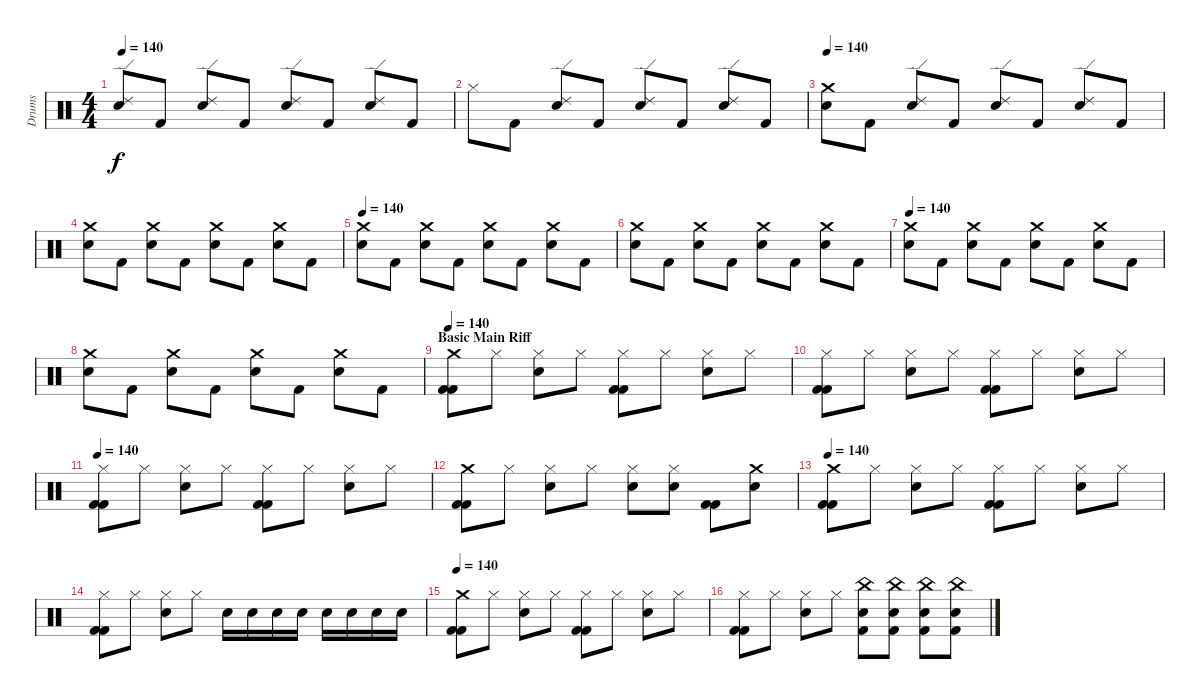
\track ("Drums" "Drums") {instrument percussion}
\staff {score}
\articulation defaults
\ts (4 4)
\tempo 140
\clef neutral
\ks c
("Ride (edge) 2" "Electric Snare (hit)").8{dy f} "Kick (hit) 2".8 ("Electric Snare (hit)" "Ride (edge) 2").8 "Kick (hit) 2".8 ("Electric Snare (hit)" "Ride (edge) 2").8 "Kick (hit) 2".8 ("Ride (edge) 2" "Electric Snare (hit)").8 "Kick (hit) 2".8 |
"Hi-Hat (closed)".8 "Kick (hit) 2".8 ("Electric Snare (hit)" "Ride (edge) 2").8 "Kick (hit) 2".8 ("Electric Snare (hit)" "Ride (edge) 2").8 "Kick (hit) 2".8 ("Ride (edge) 2" "Electric Snare (hit)").8 "Kick (hit) 2".8 |
\tempo 140
("Crash medium (hit)" "Electric Snare (hit)").8 "Kick (hit) 2".8 ("Electric Snare (hit)" "Ride (edge) 2").8 "Kick (hit) 2".8 ("Electric Snare (hit)" "Ride (edge) 2").8 "Kick (hit) 2".8 ("Ride (edge) 2" "Electric Snare (hit)").8 "Kick (hit) 2".8 |
("Crash medium (hit)" "Electric Snare (hit)").8 "Kick (hit) 2".8 ("Electric Snare (hit)" "Crash medium (hit)").8 "Kick (hit) 2".8 ("Electric Snare (hit)" "Crash medium (hit)").8 "Kick (hit) 2".8 ("Crash medium (hit)" "Electric Snare (hit)").8 "Kick (hit) 2".8 |
\tempo 140
("Crash medium (hit)" "Electric Snare (hit)").8 "Kick (hit) 2".8 ("Electric Snare (hit)" "Crash medium (hit)").8 "Kick (hit) 2".8 ("Electric Snare (hit)" "Crash medium (hit)").8 "Kick (hit) 2".8 ("Crash medium (hit)" "Electric Snare (hit)").8 "Kick (hit) 2".8 |
("Crash medium (hit)" "Electric Snare (hit)").8 "Kick (hit) 2".8 ("Electric Snare (hit)" "Crash medium (hit)").8 "Kick (hit) 2".8 ("Electric Snare (hit)" "Crash medium (hit)").8 "Kick (hit) 2".8 ("Crash medium (hit)" "Electric Snare (hit)").8 "Kick (hit) 2".8 |
\tempo 140
("Crash medium (hit)" "Electric Snare (hit)").8 "Kick (hit) 2".8 ("Electric Snare (hit)" "Crash medium (hit)").8 "Kick (hit) 2".8 ("Electric Snare (hit)" "Crash medium (hit)").8 "Kick (hit) 2".8 ("Crash medium (hit)" "Electric Snare (hit)").8 "Kick (hit) 2".8 |
("Crash medium (hit)" "Electric Snare (hit)").8 "Kick (hit) 2".8 ("Electric Snare (hit)" "Crash medium (hit)").8 "Kick (hit) 2".8 ("Electric Snare (hit)" "Crash medium (hit)").8 "Kick (hit) 2".8 ("Crash medium (hit)" "Electric Snare (hit)").8 "Kick (hit) 2".8 |
\section ("" "Basic Main Riff ")
\tempo 140
("Crash medium (hit)" "Kick (hit) 2" "Kick (hit) 2").8 "Hi-Hat (closed)".8 ("Electric Snare (hit)" "Hi-Hat (closed)").8 "Hi-Hat (closed)".8 ("Hi-Hat (closed)" "Kick (hit) 2" "Kick (hit) 2").8 "Hi-Hat (closed)".8 ("Electric Snare (hit)" "Hi-Hat (closed)").8 "Hi-Hat (closed)".8 |
("Hi-Hat (closed)" "Kick (hit) 2" "Kick (hit) 2").8 "Hi-Hat (closed)".8 ("Electric Snare (hit)" "Hi-Hat (closed)").8 "Hi-Hat (closed)".8 ("Hi-Hat (closed)" "Kick (hit) 2" "Kick (hit) 2").8 "Hi-Hat (closed)".8 ("Electric Snare (hit)" "Hi-Hat (closed)").8 "Hi-Hat (closed)".8 |
\tempo 140
("Hi-Hat (closed)" "Kick (hit) 2" "Kick (hit) 2").8 "Hi-Hat (closed)".8 ("Electric Snare (hit)" "Hi-Hat (closed)").8 "Hi-Hat (closed)".8 ("Hi-Hat (closed)" "Kick (hit) 2" "Kick (hit) 2").8 "Hi-Hat (closed)".8 ("Electric Snare (hit)" "Hi-Hat (closed)").8 "Hi-Hat (closed)".8 |
("Crash medium (hit)" "Kick (hit) 2" "Kick (hit) 2").8 "Hi-Hat (closed)".8 ("Electric Snare (hit)" "Hi-Hat (closed)").8 "Hi-Hat (closed)".8 ("Hi-Hat (closed)" "Electric Snare (hit)").8 ("Hi-Hat (closed)" "Electric Snare (hit)").8 ("Kick (hit) 2" "Kick (hit) 2").8 ("Electric Snare (hit)" "Crash medium (hit)").8 |
\tempo 140
("Crash medium (hit)" "Kick (hit) 2" "Kick (hit) 2").8 "Hi-Hat (closed)".8 ("Electric Snare (hit)" "Hi-Hat (closed)").8 "Hi-Hat (closed)".8 ("Hi-Hat (closed)" "Kick (hit) 2" "Kick (hit) 2").8 "Hi-Hat (closed)".8 ("Electric Snare (hit)" "Hi-Hat (closed)").8 "Hi-Hat (closed)".8 |
("Hi-Hat (closed)" "Kick (hit) 2" "Kick (hit) 2").8 "Hi-Hat (closed)".8 ("Electric Snare (hit)" "Hi-Hat (closed)").8 "Hi-Hat (closed)".8 "Electric Snare (hit)".16 "Electric Snare (hit)".16 "Electric Snare (hit)".16 "Electric Snare (hit)".16 "Electric Snare (hit)".16 "Electric Snare (hit)".16 "Electric Snare (hit)".16 "Electric Snare (hit)".16 |
\tempo 140
("Crash medium (hit)" "Kick (hit) 2" "Kick (hit) 2").8 "Hi-Hat (closed)".8 ("Electric Snare (hit)" "Hi-Hat (closed)").8 "Hi-Hat (closed)".8 ("Hi-Hat (closed)" "Kick (hit) 2" "Kick (hit) 2").8 "Hi-Hat (closed)".8 ("Electric Snare (hit)" "Hi-Hat (closed)").8 "Hi-Hat (closed)".8 |
("Hi-Hat (closed)" "Kick (hit) 2" "Kick (hit) 2").8 "Hi-Hat (closed)".8 ("Electric Snare (hit)" "Hi-Hat (closed)").8 "Hi-Hat (closed)".8 ("China (hit)" "Electric Snare (hit)" "Kick (hit) 2").8 ("China (hit)" "Electric Snare (hit)" "Kick (hit) 2").8 ("Electric Snare (hit)" "China (hit)" "Kick (hit) 2").8 ("Kick (hit) 2" "China (hit)" "Electric Snare (hit)").8
